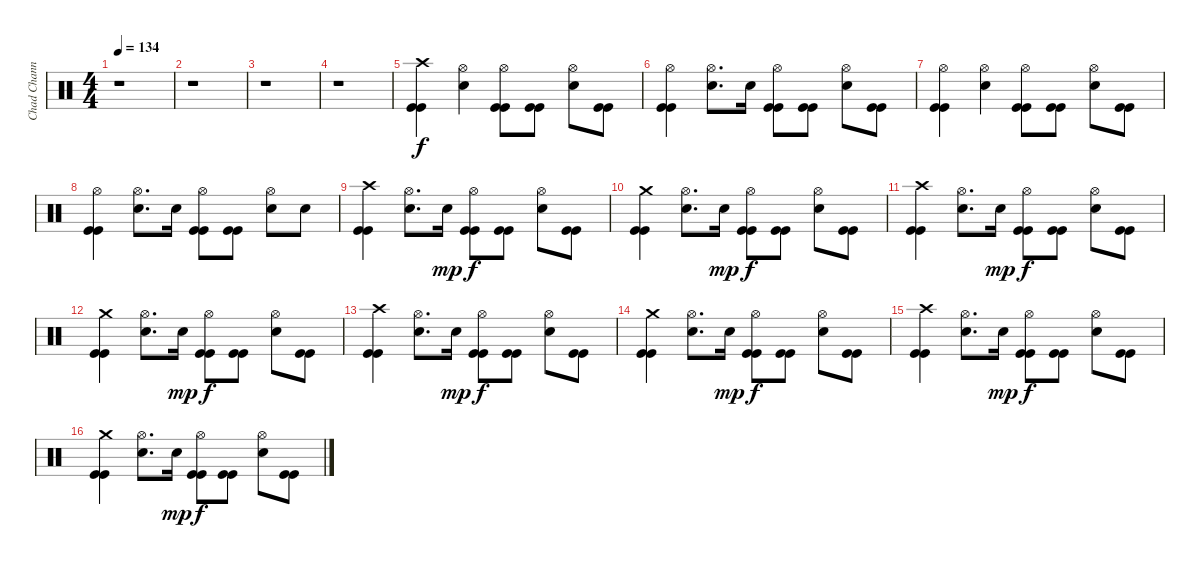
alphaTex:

\track ("Chad Channing" "Chad Chann") {instrument percussion}
\staff {score}
\articulation defaults
\ts (4 4)
\tempo 134
\clef neutral
\ks c
r.1{dy f} |
r.1 |
r.1 |
r.1 |
("Crash high (hit)" "Kick (hit)" "Kick (hit)").4 ("Hi-Hat (open)" "Electric Snare (hit)").4 ("Hi-Hat (open)" "Kick (hit)" "Kick (hit)").8 ("Kick (hit)" "Kick (hit)").8 ("Hi-Hat (open)" "Electric Snare (hit)").8 ("Kick (hit)" "Kick (hit)").8 |
("Hi-Hat (open)" "Kick (hit)" "Kick (hit)").4 ("Hi-Hat (open)" "Electric Snare (hit)").8{d} "Electric Snare (hit)".16 ("Hi-Hat (open)" "Kick (hit)" "Kick (hit)").8 ("Kick (hit)" "Kick (hit)").8 ("Hi-Hat (open)" "Electric Snare (hit)").8 ("Kick (hit)" "Kick (hit)").8 |
("Hi-Hat (open)" "Kick (hit)" "Kick (hit)").4 ("Hi-Hat (open)" "Electric Snare (hit)").4 ("Hi-Hat (open)" "Kick (hit)" "Kick (hit)").8 ("Kick (hit)" "Kick (hit)").8 ("Hi-Hat (open)" "Electric Snare (hit)").8 ("Kick (hit)" "Kick (hit)").8 |
("Hi-Hat (open)" "Kick (hit)" "Kick (hit)").4 ("Hi-Hat (open)" "Electric Snare (hit)").8{d} "Electric Snare (hit)".16 ("Hi-Hat (open)" "Kick (hit)" "Kick (hit)").8 ("Kick (hit)" "Kick (hit)").8 ("Hi-Hat (open)" "Electric Snare (hit)").8 "Electric Snare (hit)".8 |
("Crash high (hit)" "Kick (hit)" "Kick (hit)").4 ("Hi-Hat (open)" "Electric Snare (hit)").8{d} "Electric Snare (hit)".16{dy mp} ("Hi-Hat (open)" "Kick (hit)" "Kick (hit)").8{dy f} ("Kick (hit)" "Kick (hit)").8 ("Hi-Hat (open)" "Electric Snare (hit)").8 ("Kick (hit)" "Kick (hit)").8 |
("Crash medium (hit)" "Kick (hit)" "Kick (hit)").4 ("Hi-Hat (open)" "Electric Snare (hit)").8{d} "Electric Snare (hit)".16{dy mp} ("Hi-Hat (open)" "Kick (hit)" "Kick (hit)").8{dy f} ("Kick (hit)" "Kick (hit)").8 ("Hi-Hat (open)" "Electric Snare (hit)").8 ("Kick (hit)" "Kick (hit)").8 |
("Crash high (hit)" "Kick (hit)" "Kick (hit)").4 ("Hi-Hat (open)" "Electric Snare (hit)").8{d} "Electric Snare (hit)".16{dy mp} ("Hi-Hat (open)" "Kick (hit)" "Kick (hit)").8{dy f} ("Kick (hit)" "Kick (hit)").8 ("Hi-Hat (open)" "Electric Snare (hit)").8 ("Kick (hit)" "Kick (hit)").8 |
("Crash medium (hit)" "Kick (hit)" "Kick (hit)").4 ("Hi-Hat (open)" "Electric Snare (hit)").8{d} "Electric Snare (hit)".16{dy mp} ("Hi-Hat (open)" "Kick (hit)" "Kick (hit)").8{dy f} ("Kick (hit)" "Kick (hit)").8 ("Hi-Hat (open)" "Electric Snare (hit)").8 ("Kick (hit)" "Kick (hit)").8 |
("Crash high (hit)" "Kick (hit)" "Kick (hit)").4 ("Hi-Hat (open)" "Electric Snare (hit)").8{d} "Electric Snare (hit)".16{dy mp} ("Hi-Hat (open)" "Kick (hit)" "Kick (hit)").8{dy f} ("Kick (hit)" "Kick (hit)").8 ("Hi-Hat (open)" "Electric Snare (hit)").8 ("Kick (hit)" "Kick (hit)").8 |
("Crash medium (hit)" "Kick (hit)" "Kick (hit)").4 ("Hi-Hat (open)" "Electric Snare (hit)").8{d} "Electric Snare (hit)".16{dy mp} ("Hi-Hat (open)" "Kick (hit)" "Kick (hit)").8{dy f} ("Kick (hit)" "Kick (hit)").8 ("Hi-Hat (open)" "Electric Snare (hit)").8 ("Kick (hit)" "Kick (hit)").8 |
("Crash high (hit)" "Kick (hit)" "Kick (hit)").4 ("Hi-Hat (open)" "Electric Snare (hit)").8{d} "Electric Snare (hit)".16{dy mp} ("Hi-Hat (open)" "Kick (hit)" "Kick (hit)").8{dy f} ("Kick (hit)" "Kick (hit)").8 ("Hi-Hat (open)" "Electric Snare (hit)").8 ("Kick (hit)" "Kick (hit)").8 |
("Crash medium (hit)" "Kick (hit)" "Kick (hit)").4 ("Hi-Hat (open)" "Electric Snare (hit)").8{d} "Electric Snare (hit)".16{dy mp} ("Hi-Hat (open)" "Kick (hit)" "Kick (hit)").8{dy f} ("Kick (hit)" "Kick (hit)").8 ("Hi-Hat (open)" "Electric Snare (hit)").8 ("Kick (hit)" "Kick (hit)").8
